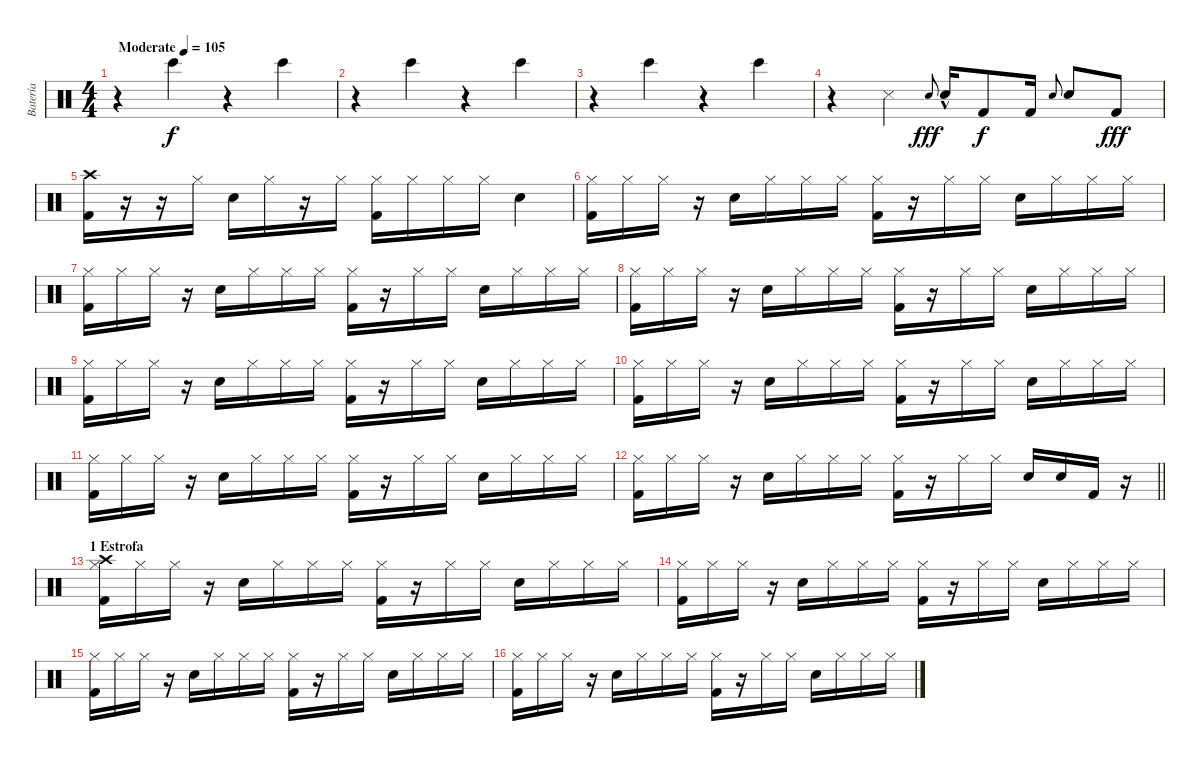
\track ("Batería" "Batería") {instrument percussion}
\staff {score}
\articulation defaults
\ts (4 4)
\tempo (105 "Moderate")
\clef neutral
\ks c
r.4{dy f} "Bongo High (hit)".4 r.4 "Bongo High (hit)".4 |
r.4 "Bongo High (hit)".4 r.4 "Bongo High (hit)".4 |
r.4 "Bongo High (hit)".4 r.4 "Bongo High (hit)".4 |
r.4 "Snare (side stick) 3".4 "Electric Snare (hit)".8{gr onbeat dy fff} "Electric Snare (hit)"{hac}.16 "Kick (hit) 2".8{dy f} "Kick (hit) 2".16 "Electric Snare (hit)".8{gr onbeat} "Electric Snare (hit)".8 "Kick (hit) 2".8{dy fff} |
("Crash high (hit)" "Kick (hit) 2").16 r.16 r.16 "Hi-Hat (closed)".16 "Electric Snare (hit)".16 "Hi-Hat (closed)".16 r.16 "Hi-Hat (closed)".16 ("Hi-Hat (closed)" "Kick (hit) 2").16 "Hi-Hat (closed)".16 "Hi-Hat (closed)".16 "Hi-Hat (closed)".16 "Electric Snare (hit)".4 |
("Hi-Hat (closed)" "Kick (hit) 2").16 "Hi-Hat (closed)".16 "Hi-Hat (closed)".16 r.16 "Electric Snare (hit)".16 "Hi-Hat (closed)".16 "Hi-Hat (closed)".16 "Hi-Hat (closed)".16 ("Hi-Hat (closed)" "Kick (hit) 2").16 r.16 "Hi-Hat (closed)".16 "Hi-Hat (closed)".16 "Electric Snare (hit)".16 "Hi-Hat (closed)".16 "Hi-Hat (closed)".16 "Hi-Hat (closed)".16 |
("Hi-Hat (closed)" "Kick (hit) 2").16 "Hi-Hat (closed)".16 "Hi-Hat (closed)".16 r.16 "Electric Snare (hit)".16 "Hi-Hat (closed)".16 "Hi-Hat (closed)".16 "Hi-Hat (closed)".16 ("Hi-Hat (closed)" "Kick (hit) 2").16 r.16 "Hi-Hat (closed)".16 "Hi-Hat (closed)".16 "Electric Snare (hit)".16 "Hi-Hat (closed)".16 "Hi-Hat (closed)".16 "Hi-Hat (closed)".16 |
("Hi-Hat (closed)" "Kick (hit) 2").16 "Hi-Hat (closed)".16 "Hi-Hat (closed)".16 r.16 "Electric Snare (hit)".16 "Hi-Hat (closed)".16 "Hi-Hat (closed)".16 "Hi-Hat (closed)".16 ("Hi-Hat (closed)" "Kick (hit) 2").16 r.16 "Hi-Hat (closed)".16 "Hi-Hat (closed)".16 "Electric Snare (hit)".16 "Hi-Hat (closed)".16 "Hi-Hat (closed)".16 "Hi-Hat (closed)".16 |
("Hi-Hat (closed)" "Kick (hit) 2").16 "Hi-Hat (closed)".16 "Hi-Hat (closed)".16 r.16 "Electric Snare (hit)".16 "Hi-Hat (closed)".16 "Hi-Hat (closed)".16 "Hi-Hat (closed)".16 ("Hi-Hat (closed)" "Kick (hit) 2").16 r.16 "Hi-Hat (closed)".16 "Hi-Hat (closed)".16 "Electric Snare (hit)".16 "Hi-Hat (closed)".16 "Hi-Hat (closed)".16 "Hi-Hat (closed)".16 |
("Hi-Hat (closed)" "Kick (hit) 2").16 "Hi-Hat (closed)".16 "Hi-Hat (closed)".16 r.16 "Electric Snare (hit)".16 "Hi-Hat (closed)".16 "Hi-Hat (closed)".16 "Hi-Hat (closed)".16 ("Hi-Hat (closed)" "Kick (hit) 2").16 r.16 "Hi-Hat (closed)".16 "Hi-Hat (closed)".16 "Electric Snare (hit)".16 "Hi-Hat (closed)".16 "Hi-Hat (closed)".16 "Hi-Hat (closed)".16 |
("Hi-Hat (closed)" "Kick (hit) 2").16 "Hi-Hat (closed)".16 "Hi-Hat (closed)".16 r.16 "Electric Snare (hit)".16 "Hi-Hat (closed)".16 "Hi-Hat (closed)".16 "Hi-Hat (closed)".16 ("Hi-Hat (closed)" "Kick (hit) 2").16 r.16 "Hi-Hat (closed)".16 "Hi-Hat (closed)".16 "Electric Snare (hit)".16 "Hi-Hat (closed)".16 "Hi-Hat (closed)".16 "Hi-Hat (closed)".16 |
\barLineRight lightlight
("Hi-Hat (closed)" "Kick (hit) 2").16 "Hi-Hat (closed)".16 "Hi-Hat (closed)".16 r.16 "Electric Snare (hit)".16 "Hi-Hat (closed)".16 "Hi-Hat (closed)".16 "Hi-Hat (closed)".16 ("Hi-Hat (closed)" "Kick (hit) 2").16 r.16 "Hi-Hat (closed)".16 "Hi-Hat (closed)".16 "Snare (hit) 2".16 "Snare (hit) 2".16 "Kick (hit) 2".16 r.16 |
\section ("" "1 Estrofa")
("Crash high (hit)" "Hi-Hat (closed)" "Kick (hit) 2").16 "Hi-Hat (closed)".16 "Hi-Hat (closed)".16 r.16 "Electric Snare (hit)".16 "Hi-Hat (closed)".16 "Hi-Hat (closed)".16 "Hi-Hat (closed)".16 ("Hi-Hat (closed)" "Kick (hit) 2").16 r.16 "Hi-Hat (closed)".16 "Hi-Hat (closed)".16 "Electric Snare (hit)".16 "Hi-Hat (closed)".16 "Hi-Hat (closed)".16 "Hi-Hat (closed)".16 |
("Hi-Hat (closed)" "Kick (hit) 2").16 "Hi-Hat (closed)".16 "Hi-Hat (closed)".16 r.16 "Electric Snare (hit)".16 "Hi-Hat (closed)".16 "Hi-Hat (closed)".16 "Hi-Hat (closed)".16 ("Hi-Hat (closed)" "Kick (hit) 2").16 r.16 "Hi-Hat (closed)".16 "Hi-Hat (closed)".16 "Electric Snare (hit)".16 "Hi-Hat (closed)".16 "Hi-Hat (closed)".16 "Hi-Hat (closed)".16 |
("Hi-Hat (closed)" "Kick (hit) 2").16 "Hi-Hat (closed)".16 "Hi-Hat (closed)".16 r.16 "Electric Snare (hit)".16 "Hi-Hat (closed)".16 "Hi-Hat (closed)".16 "Hi-Hat (closed)".16 ("Hi-Hat (closed)" "Kick (hit) 2").16 r.16 "Hi-Hat (closed)".16 "Hi-Hat (closed)".16 "Electric Snare (hit)".16 "Hi-Hat (closed)".16 "Hi-Hat (closed)".16 "Hi-Hat (closed)".16 |
("Hi-Hat (closed)" "Kick (hit) 2").16 "Hi-Hat (closed)".16 "Hi-Hat (closed)".16 r.16 "Electric Snare (hit)".16 "Hi-Hat (closed)".16 "Hi-Hat (closed)".16 "Hi-Hat (closed)".16 ("Hi-Hat (closed)" "Kick (hit) 2").16 r.16 "Hi-Hat (closed)".16 "Hi-Hat (closed)".16 "Electric Snare (hit)".16 "Hi-Hat (closed)".16 "Hi-Hat (closed)".16 "Hi-Hat (closed)".16
